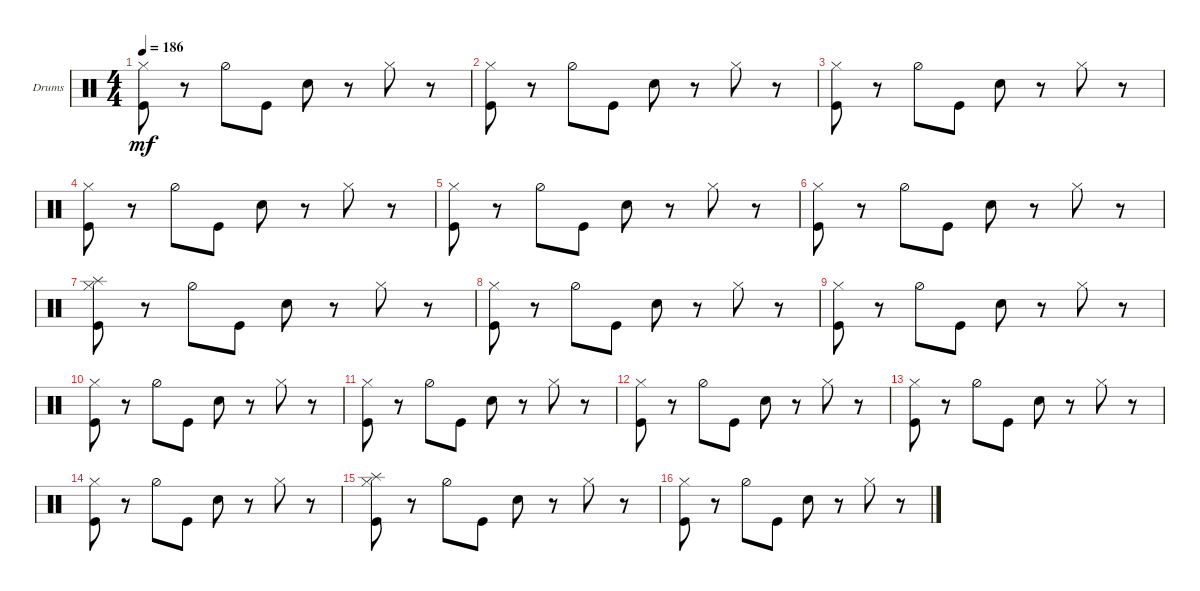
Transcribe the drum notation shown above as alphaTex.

\defaultSystemsLayout 4
\bracketExtendMode groupsimilarinstruments
\firstSystemTrackNameOrientation horizontal
\otherSystemsTrackNameOrientation horizontal
\track ("Drumkit" "Drums") {instrument percussion}
\staff {score}
\articulation defaults
\ts (4 4)
\tempo 186
\clef neutral
\scale
0.333333
\ks c
("Hi-Hat (closed)" "Kick (hit)").8{dy mf} r.8 "Hi-Hat (half)".8 "Kick (hit)".8 "Snare (hit) 2".8 r.8 "Hi-Hat (closed)".8 r.8 |
\scale
0.333333 ("Hi-Hat (closed)" "Kick (hit)").8 r.8 "Hi-Hat (half)".8 "Kick (hit)".8 "Snare (hit) 2".8 r.8 "Hi-Hat (closed)".8 r.8 |
\scale
0.333333 ("Hi-Hat (closed)" "Kick (hit)").8 r.8 "Hi-Hat (half)".8 "Kick (hit)".8 "Snare (hit) 2".8 r.8 "Hi-Hat (closed)".8 r.8 |
\scale
0.333333 ("Hi-Hat (closed)" "Kick (hit)").8 r.8 "Hi-Hat (half)".8 "Kick (hit)".8 "Snare (hit) 2".8 r.8 "Hi-Hat (closed)".8 r.8 |
\scale
0.333333 ("Hi-Hat (closed)" "Kick (hit)").8 r.8 "Hi-Hat (half)".8 "Kick (hit)".8 "Snare (hit) 2".8 r.8 "Hi-Hat (closed)".8 r.8 |
\scale
0.333333 ("Hi-Hat (closed)" "Kick (hit)").8 r.8 "Hi-Hat (half)".8 "Kick (hit)".8 "Snare (hit) 2".8 r.8 "Hi-Hat (closed)".8 r.8 |
\scale
0.333333 ("Hi-Hat (closed)" "Kick (hit)" "Splash (hit)").8 r.8 "Hi-Hat (half)".8 "Kick (hit)".8 "Snare (hit) 2".8 r.8 "Hi-Hat (closed)".8 r.8 |
\scale
0.333333 ("Hi-Hat (closed)" "Kick (hit)").8 r.8 "Hi-Hat (half)".8 "Kick (hit)".8 "Snare (hit) 2".8 r.8 "Hi-Hat (closed)".8 r.8 |
\scale
0.333333 ("Hi-Hat (closed)" "Kick (hit)").8 r.8 "Hi-Hat (half)".8 "Kick (hit)".8 "Snare (hit) 2".8 r.8 "Hi-Hat (closed)".8 r.8 |
\scale
0.333333 ("Hi-Hat (closed)" "Kick (hit)").8 r.8 "Hi-Hat (half)".8 "Kick (hit)".8 "Snare (hit) 2".8 r.8 "Hi-Hat (closed)".8 r.8 |
\scale
0.333333 ("Hi-Hat (closed)" "Kick (hit)").8 r.8 "Hi-Hat (half)".8 "Kick (hit)".8 "Snare (hit) 2".8 r.8 "Hi-Hat (closed)".8 r.8 |
\scale
0.333333 ("Hi-Hat (closed)" "Kick (hit)").8 r.8 "Hi-Hat (half)".8 "Kick (hit)".8 "Snare (hit) 2".8 r.8 "Hi-Hat (closed)".8 r.8 |
\scale
0.333333 ("Hi-Hat (closed)" "Kick (hit)").8 r.8 "Hi-Hat (half)".8 "Kick (hit)".8 "Snare (hit) 2".8 r.8 "Hi-Hat (closed)".8 r.8 |
("Hi-Hat (closed)" "Kick (hit)").8 r.8 "Hi-Hat (half)".8 "Kick (hit)".8 "Snare (hit) 2".8 r.8 "Hi-Hat (closed)".8 r.8 |
("Hi-Hat (closed)" "Kick (hit)" "Splash (hit)").8 r.8 "Hi-Hat (half)".8 "Kick (hit)".8 "Snare (hit) 2".8 r.8 "Hi-Hat (closed)".8 r.8 |
("Hi-Hat (closed)" "Kick (hit)").8 r.8 "Hi-Hat (half)".8 "Kick (hit)".8 "Snare (hit) 2".8 r.8 "Hi-Hat (closed)".8 r.8
